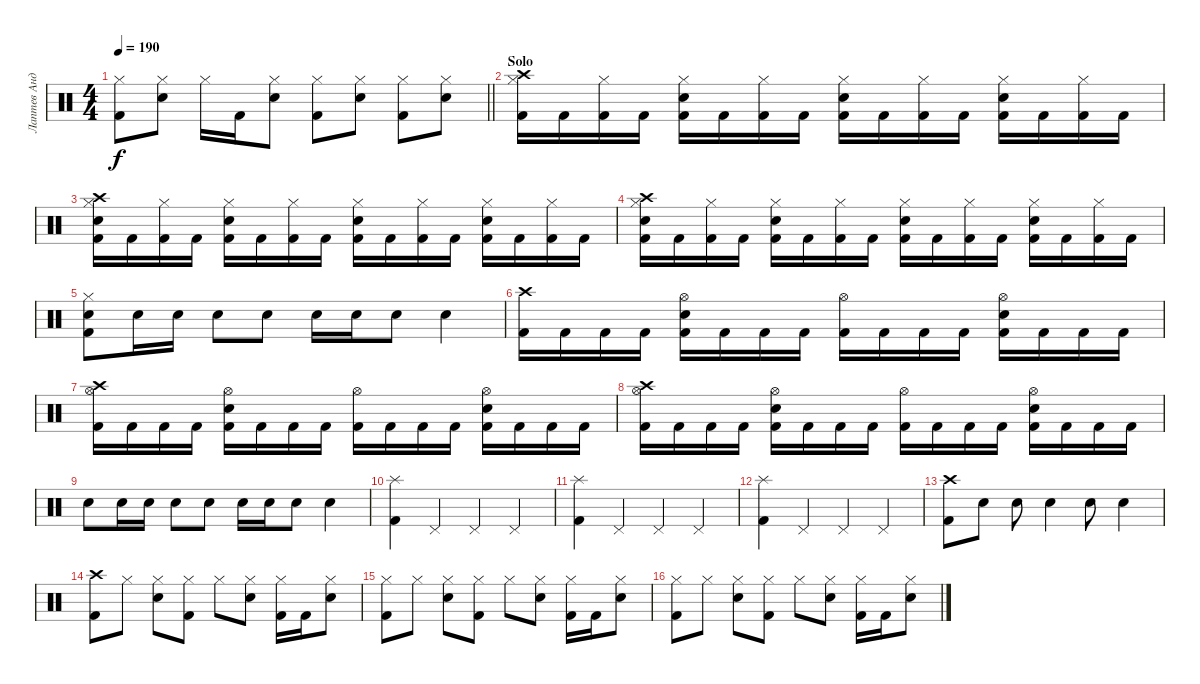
\track ("Лаптев Андрей" "Лаптев Анд") {instrument percussion}
\staff {score}
\articulation defaults
\ts (4 4)
\tempo 190
\clef neutral
\barLineRight lightlight
\ks c
("Hi-Hat (closed)" "Kick (hit) 2").8{dy f} ("Electric Snare (hit)" "Hi-Hat (closed)").8 "Hi-Hat (closed)".16 "Kick (hit) 2".16 ("Electric Snare (hit)" "Hi-Hat (closed)").8 ("Hi-Hat (closed)" "Kick (hit) 2").8 ("Electric Snare (hit)" "Hi-Hat (closed)").8 ("Hi-Hat (closed)" "Kick (hit) 2").8 ("Hi-Hat (closed)" "Electric Snare (hit)").8 |
\section ("" "Solo")
("Crash high (hit)" "Hi-Hat (closed)" "Kick (hit) 2").16 "Kick (hit) 2".16 ("Hi-Hat (closed)" "Kick (hit) 2").16 "Kick (hit) 2".16 ("Electric Snare (hit)" "Hi-Hat (closed)" "Kick (hit) 2").16 "Kick (hit) 2".16 ("Hi-Hat (closed)" "Kick (hit) 2").16 "Kick (hit) 2".16 ("Electric Snare (hit)" "Hi-Hat (closed)" "Kick (hit) 2").16 "Kick (hit) 2".16 ("Hi-Hat (closed)" "Kick (hit) 2").16 "Kick (hit) 2".16 ("Electric Snare (hit)" "Hi-Hat (closed)" "Kick (hit) 2").16 "Kick (hit) 2".16 ("Hi-Hat (closed)" "Kick (hit) 2").16 "Kick (hit) 2".16 |
("Crash high (hit)" "Electric Snare (hit)" "Hi-Hat (closed)" "Kick (hit) 2").16 "Kick (hit) 2".16 ("Hi-Hat (closed)" "Kick (hit) 2").16 "Kick (hit) 2".16 ("Electric Snare (hit)" "Hi-Hat (closed)" "Kick (hit) 2").16 "Kick (hit) 2".16 ("Hi-Hat (closed)" "Kick (hit) 2").16 "Kick (hit) 2".16 ("Electric Snare (hit)" "Hi-Hat (closed)" "Kick (hit) 2").16 "Kick (hit) 2".16 ("Hi-Hat (closed)" "Kick (hit) 2").16 "Kick (hit) 2".16 ("Electric Snare (hit)" "Hi-Hat (closed)" "Kick (hit) 2").16 "Kick (hit) 2".16 ("Hi-Hat (closed)" "Kick (hit) 2").16 "Kick (hit) 2".16 |
("Crash high (hit)" "Hi-Hat (closed)" "Electric Snare (hit)" "Kick (hit) 2").16 "Kick (hit) 2".16 ("Hi-Hat (closed)" "Kick (hit) 2").16 "Kick (hit) 2".16 ("Electric Snare (hit)" "Hi-Hat (closed)" "Kick (hit) 2").16 "Kick (hit) 2".16 ("Hi-Hat (closed)" "Kick (hit) 2").16 "Kick (hit) 2".16 ("Electric Snare (hit)" "Hi-Hat (closed)" "Kick (hit) 2").16 "Kick (hit) 2".16 ("Hi-Hat (closed)" "Kick (hit) 2").16 "Kick (hit) 2".16 ("Electric Snare (hit)" "Hi-Hat (closed)" "Kick (hit) 2").16 "Kick (hit) 2".16 ("Hi-Hat (closed)" "Kick (hit) 2").16 "Kick (hit) 2".16 |
("Electric Snare (hit)" "Hi-Hat (closed)" "Kick (hit) 2").8 "Electric Snare (hit)".16 "Electric Snare (hit)".16 "Electric Snare (hit)".8 "Electric Snare (hit)".8 "Electric Snare (hit)".16 "Electric Snare (hit)".16 "Electric Snare (hit)".8 "Electric Snare (hit)".4 |
("Crash high (hit)" "Kick (hit) 2").16 "Kick (hit) 2".16 "Kick (hit) 2".16 "Kick (hit) 2".16 ("Hi-Hat (open)" "Electric Snare (hit)" "Kick (hit) 2").16 "Kick (hit) 2".16 "Kick (hit) 2".16 "Kick (hit) 2".16 ("Hi-Hat (open)" "Kick (hit) 2").16 "Kick (hit) 2".16 "Kick (hit) 2".16 "Kick (hit) 2".16 ("Hi-Hat (open)" "Electric Snare (hit)" "Kick (hit) 2").16 "Kick (hit) 2".16 "Kick (hit) 2".16 "Kick (hit) 2".16 |
("Crash high (hit)" "Hi-Hat (open)" "Kick (hit) 2").16 "Kick (hit) 2".16 "Kick (hit) 2".16 "Kick (hit) 2".16 ("Hi-Hat (open)" "Electric Snare (hit)" "Kick (hit) 2").16 "Kick (hit) 2".16 "Kick (hit) 2".16 "Kick (hit) 2".16 ("Hi-Hat (open)" "Kick (hit) 2").16 "Kick (hit) 2".16 "Kick (hit) 2".16 "Kick (hit) 2".16 ("Hi-Hat (open)" "Electric Snare (hit)" "Kick (hit) 2").16 "Kick (hit) 2".16 "Kick (hit) 2".16 "Kick (hit) 2".16 |
("Crash high (hit)" "Hi-Hat (open)" "Kick (hit) 2").16 "Kick (hit) 2".16 "Kick (hit) 2".16 "Kick (hit) 2".16 ("Electric Snare (hit)" "Hi-Hat (open)" "Kick (hit) 2").16 "Kick (hit) 2".16 "Kick (hit) 2".16 "Kick (hit) 2".16 ("Hi-Hat (open)" "Kick (hit) 2").16 "Kick (hit) 2".16 "Kick (hit) 2".16 "Kick (hit) 2".16 ("Electric Snare (hit)" "Hi-Hat (open)" "Kick (hit) 2").16 "Kick (hit) 2".16 "Kick (hit) 2".16 "Kick (hit) 2".16 |
"Electric Snare (hit)".8 "Electric Snare (hit)".16 "Electric Snare (hit)".16 "Electric Snare (hit)".8 "Electric Snare (hit)".8 "Electric Snare (hit)".16 "Electric Snare (hit)".16 "Electric Snare (hit)".8 "Electric Snare (hit)".4 |
("Splash (hit)" "Kick (hit) 2").4 "Pedal Hi-Hat (hit)".4 "Pedal Hi-Hat (hit)".4 "Pedal Hi-Hat (hit)".4 |
("Splash (hit)" "Kick (hit) 2").4 "Pedal Hi-Hat (hit)".4 "Pedal Hi-Hat (hit)".4 "Pedal Hi-Hat (hit)".4 |
("Splash (hit)" "Kick (hit) 2").4 "Pedal Hi-Hat (hit)".4 "Pedal Hi-Hat (hit)".4 "Pedal Hi-Hat (hit)".4 |
("Crash high (hit)" "Kick (hit) 2").8 "Electric Snare (hit)".8 "Electric Snare (hit)".8 "Electric Snare (hit)".4 "Electric Snare (hit)".8 "Electric Snare (hit)".4 |
("Crash high (hit)" "Kick (hit) 2").8 "Hi-Hat (closed)".8 ("Electric Snare (hit)" "Hi-Hat (closed)").8 ("Hi-Hat (closed)" "Kick (hit) 2").8 "Hi-Hat (closed)".8 ("Hi-Hat (closed)" "Electric Snare (hit)").8 ("Hi-Hat (closed)" "Kick (hit) 2").16 "Kick (hit) 2".16 ("Hi-Hat (closed)" "Electric Snare (hit)").8 |
("Hi-Hat (closed)" "Kick (hit) 2").8 "Hi-Hat (closed)".8 ("Electric Snare (hit)" "Hi-Hat (closed)").8 ("Hi-Hat (closed)" "Kick (hit) 2").8 "Hi-Hat (closed)".8 ("Electric Snare (hit)" "Hi-Hat (closed)").8 ("Hi-Hat (closed)" "Kick (hit) 2").16 "Kick (hit) 2".16 ("Hi-Hat (closed)" "Electric Snare (hit)").8 |
("Hi-Hat (closed)" "Kick (hit) 2").8 "Hi-Hat (closed)".8 ("Electric Snare (hit)" "Hi-Hat (closed)").8 ("Hi-Hat (closed)" "Kick (hit) 2").8 "Hi-Hat (closed)".8 ("Electric Snare (hit)" "Hi-Hat (closed)").8 ("Hi-Hat (closed)" "Kick (hit) 2").16 "Kick (hit) 2".16 ("Hi-Hat (closed)" "Electric Snare (hit)").8
